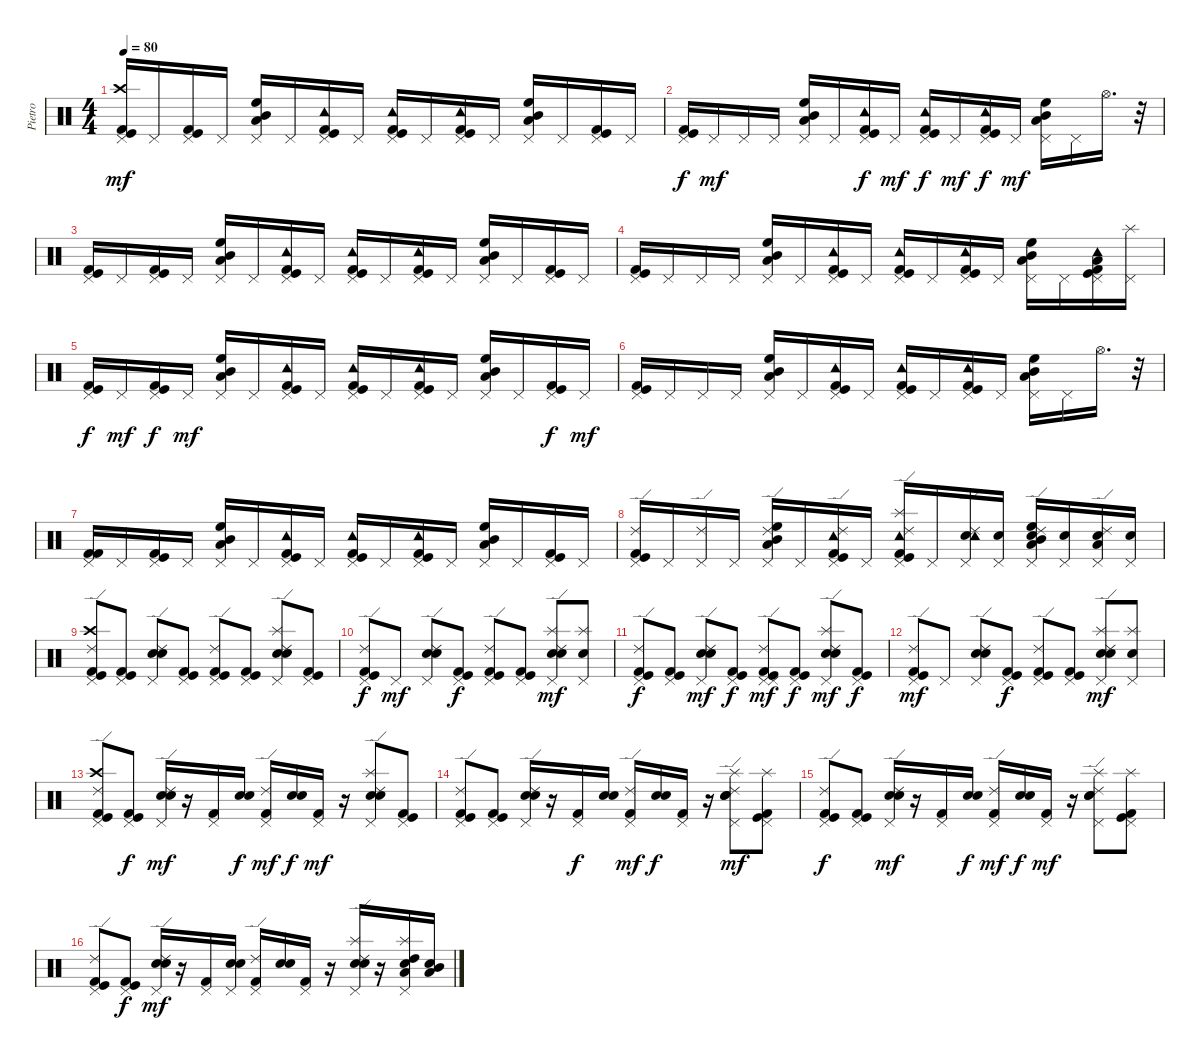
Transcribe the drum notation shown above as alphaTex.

\track ("Pietro" "Pietro") {instrument percussion}
\staff {score}
\articulation defaults
\ts (4 4)
\tempo 80
\clef neutral
\ks c
("Pedal Hi-Hat (hit)" "Crash high (hit)" "Kick (hit)" "Kick (hit) 2").16{dy mf} "Pedal Hi-Hat (hit)".16 ("Pedal Hi-Hat (hit)" "Kick (hit)" "Kick (hit) 2").16 "Pedal Hi-Hat (hit)".16 ("Pedal Hi-Hat (hit)" "High Floor Tom (hit)" "Mid Tom (hit)" "Low Tom (hit)").16 "Pedal Hi-Hat (hit)".16 ("Pedal Hi-Hat (hit)" "Tambourine (hit)" "Kick (hit)" "Kick (hit) 2").16 "Pedal Hi-Hat (hit)".16 ("Pedal Hi-Hat (hit)" "Tambourine (hit)" "Kick (hit)" "Kick (hit) 2").16 "Pedal Hi-Hat (hit)".16 ("Pedal Hi-Hat (hit)" "Tambourine (hit)" "Kick (hit)" "Kick (hit) 2").16 "Pedal Hi-Hat (hit)".16 ("Pedal Hi-Hat (hit)" "Mid Tom (hit)" "High Floor Tom (hit)" "Low Tom (hit)").16 "Pedal Hi-Hat (hit)".16 ("Pedal Hi-Hat (hit)" "Kick (hit)" "Kick (hit) 2").16 "Pedal Hi-Hat (hit)".16 |
("Pedal Hi-Hat (hit)" "Kick (hit)" "Kick (hit) 2").16{dy f} "Pedal Hi-Hat (hit)".16{dy mf} "Pedal Hi-Hat (hit)".16 "Pedal Hi-Hat (hit)".16 ("Pedal Hi-Hat (hit)" "High Floor Tom (hit)" "Mid Tom (hit)" "Low Tom (hit)").16 "Pedal Hi-Hat (hit)".16 ("Pedal Hi-Hat (hit)" "Tambourine (hit)" "Kick (hit)" "Kick (hit) 2").16{dy f} "Pedal Hi-Hat (hit)".16{dy mf} ("Pedal Hi-Hat (hit)" "Tambourine (hit)" "Kick (hit)" "Kick (hit) 2").16{dy f} "Pedal Hi-Hat (hit)".16{dy mf} ("Pedal Hi-Hat (hit)" "Tambourine (hit)" "Kick (hit)" "Kick (hit) 2").16{dy f} "Pedal Hi-Hat (hit)".16{dy mf} ("Pedal Hi-Hat (hit)" "High Floor Tom (hit)" "Mid Tom (hit)" "Low Tom (hit)").16 "Pedal Hi-Hat (hit)".16 "Hi-Hat (open)".16{d} r.32 |
("Pedal Hi-Hat (hit)" "Kick (hit)" "Kick (hit) 2").16 "Pedal Hi-Hat (hit)".16 ("Pedal Hi-Hat (hit)" "Kick (hit)" "Kick (hit) 2").16 "Pedal Hi-Hat (hit)".16 ("Pedal Hi-Hat (hit)" "High Floor Tom (hit)" "Mid Tom (hit)" "Low Tom (hit)").16 "Pedal Hi-Hat (hit)".16 ("Pedal Hi-Hat (hit)" "Tambourine (hit)" "Kick (hit)" "Kick (hit) 2").16 "Pedal Hi-Hat (hit)".16 ("Pedal Hi-Hat (hit)" "Tambourine (hit)" "Kick (hit)" "Kick (hit) 2").16 "Pedal Hi-Hat (hit)".16 ("Pedal Hi-Hat (hit)" "Tambourine (hit)" "Kick (hit)" "Kick (hit) 2").16 "Pedal Hi-Hat (hit)".16 ("Pedal Hi-Hat (hit)" "Mid Tom (hit)" "High Floor Tom (hit)" "Low Tom (hit)").16 "Pedal Hi-Hat (hit)".16 ("Pedal Hi-Hat (hit)" "Kick (hit)" "Kick (hit) 2").16 "Pedal Hi-Hat (hit)".16 |
("Pedal Hi-Hat (hit)" "Kick (hit)" "Kick (hit) 2").16 "Pedal Hi-Hat (hit)".16 "Pedal Hi-Hat (hit)".16 "Pedal Hi-Hat (hit)".16 ("Pedal Hi-Hat (hit)" "High Floor Tom (hit)" "Mid Tom (hit)" "Low Tom (hit)").16 "Pedal Hi-Hat (hit)".16 ("Pedal Hi-Hat (hit)" "Tambourine (hit)" "Kick (hit)" "Kick (hit) 2").16 "Pedal Hi-Hat (hit)".16 ("Pedal Hi-Hat (hit)" "Tambourine (hit)" "Kick (hit)" "Kick (hit) 2").16 "Pedal Hi-Hat (hit)".16 ("Pedal Hi-Hat (hit)" "Tambourine (hit)" "Kick (hit)" "Kick (hit) 2").16 "Pedal Hi-Hat (hit)".16 ("Pedal Hi-Hat (hit)" "High Floor Tom (hit)" "Mid Tom (hit)" "Low Tom (hit)").16 "Pedal Hi-Hat (hit)".16 ("Pedal Hi-Hat (hit)" "Tambourine (hit)" "Low Tom (hit)" "Kick (hit)" "Kick (hit) 2").16 ("Pedal Hi-Hat (hit)" "Splash (hit)").16 |
("Pedal Hi-Hat (hit)" "Kick (hit)" "Kick (hit) 2").16{dy f} "Pedal Hi-Hat (hit)".16{dy mf} ("Pedal Hi-Hat (hit)" "Kick (hit)" "Kick (hit) 2").16{dy f} "Pedal Hi-Hat (hit)".16{dy mf} ("Pedal Hi-Hat (hit)" "High Floor Tom (hit)" "Mid Tom (hit)" "Low Tom (hit)").16 "Pedal Hi-Hat (hit)".16 ("Pedal Hi-Hat (hit)" "Tambourine (hit)" "Kick (hit)" "Kick (hit) 2").16 "Pedal Hi-Hat (hit)".16 ("Pedal Hi-Hat (hit)" "Tambourine (hit)" "Kick (hit)" "Kick (hit) 2").16 "Pedal Hi-Hat (hit)".16 ("Pedal Hi-Hat (hit)" "Tambourine (hit)" "Kick (hit)" "Kick (hit) 2").16 "Pedal Hi-Hat (hit)".16 ("Pedal Hi-Hat (hit)" "High Floor Tom (hit)" "Mid Tom (hit)" "Low Tom (hit)").16 "Pedal Hi-Hat (hit)".16 ("Pedal Hi-Hat (hit)" "Kick (hit)" "Kick (hit) 2").16{dy f} "Pedal Hi-Hat (hit)".16{dy mf} |
("Pedal Hi-Hat (hit)" "Kick (hit)" "Kick (hit) 2").16 "Pedal Hi-Hat (hit)".16 "Pedal Hi-Hat (hit)".16 "Pedal Hi-Hat (hit)".16 ("Pedal Hi-Hat (hit)" "High Floor Tom (hit)" "Mid Tom (hit)" "Low Tom (hit)").16 "Pedal Hi-Hat (hit)".16 ("Pedal Hi-Hat (hit)" "Tambourine (hit)" "Kick (hit)" "Kick (hit) 2").16 "Pedal Hi-Hat (hit)".16 ("Pedal Hi-Hat (hit)" "Tambourine (hit)" "Kick (hit)" "Kick (hit) 2").16 "Pedal Hi-Hat (hit)".16 ("Pedal Hi-Hat (hit)" "Tambourine (hit)" "Kick (hit)" "Kick (hit) 2").16 "Pedal Hi-Hat (hit)".16 ("Pedal Hi-Hat (hit)" "High Floor Tom (hit)" "Mid Tom (hit)" "Low Tom (hit)").16 "Pedal Hi-Hat (hit)".16 "Hi-Hat (open)".16{d} r.32 |
("Pedal Hi-Hat (hit)" "Kick (hit) 2" "Kick (hit) 2").16 "Pedal Hi-Hat (hit)".16 ("Pedal Hi-Hat (hit)" "Kick (hit)" "Kick (hit) 2").16 "Pedal Hi-Hat (hit)".16 ("Pedal Hi-Hat (hit)" "High Floor Tom (hit)" "Mid Tom (hit)" "Low Tom (hit)").16 "Pedal Hi-Hat (hit)".16 ("Pedal Hi-Hat (hit)" "Tambourine (hit)" "Kick (hit)" "Kick (hit) 2").16 "Pedal Hi-Hat (hit)".16 ("Pedal Hi-Hat (hit)" "Tambourine (hit)" "Kick (hit)" "Kick (hit) 2").16 "Pedal Hi-Hat (hit)".16 ("Pedal Hi-Hat (hit)" "Tambourine (hit)" "Kick (hit)" "Kick (hit) 2").16 "Pedal Hi-Hat (hit)".16 ("Pedal Hi-Hat (hit)" "High Floor Tom (hit)" "Mid Tom (hit)" "Low Tom (hit)").16 "Pedal Hi-Hat (hit)".16 ("Pedal Hi-Hat (hit)" "Kick (hit)" "Kick (hit) 2").16 "Pedal Hi-Hat (hit)".16 |
("Pedal Hi-Hat (hit)" "Ride (edge) 2" "Kick (hit)" "Kick (hit) 2").16 "Pedal Hi-Hat (hit)".16 ("Pedal Hi-Hat (hit)" "Ride (edge) 2").16 "Pedal Hi-Hat (hit)".16 ("Pedal Hi-Hat (hit)" "Ride (edge) 2" "High Floor Tom (hit)" "Mid Tom (hit)" "Low Tom (hit)").16 "Pedal Hi-Hat (hit)".16 ("Pedal Hi-Hat (hit)" "Ride (edge) 2" "Tambourine (hit)" "Kick (hit)" "Kick (hit) 2").16 "Pedal Hi-Hat (hit)".16 ("Pedal Hi-Hat (hit)" "Splash (hit)" "Tambourine (hit)" "Ride (edge) 2" "Kick (hit)" "Kick (hit) 2").16 "Pedal Hi-Hat (hit)".16 ("Pedal Hi-Hat (hit)" "Ride (edge) 2" "Snare (hit) 2" "Tambourine (hit)").16 ("Pedal Hi-Hat (hit)" "Snare (hit) 2").16 ("Ride (edge) 2" "Snare (hit) 2" "Low Tom (hit)" "High Floor Tom (hit)" "Mid Tom (hit)" "Pedal Hi-Hat (hit)").16 ("Snare (hit) 2" "Pedal Hi-Hat (hit)").16 ("Ride (edge) 2" "Snare (hit) 2" "Low Tom (hit)" "Pedal Hi-Hat (hit)").16 ("Snare (hit) 2" "Pedal Hi-Hat (hit)").16 |
("Pedal Hi-Hat (hit)" "Ride (edge) 2" "Crash high (hit)" "Kick (hit)" "Kick (hit) 2").8 ("Pedal Hi-Hat (hit)" "Kick (hit)" "Kick (hit) 2").8 ("Pedal Hi-Hat (hit)" "Ride (edge) 2" "Snare (hit) 2" "Electric Snare (hit)").8 ("Pedal Hi-Hat (hit)" "Kick (hit)" "Kick (hit) 2").8 ("Pedal Hi-Hat (hit)" "Ride (edge) 2" "Kick (hit)" "Kick (hit) 2").8 ("Pedal Hi-Hat (hit)" "Kick (hit)" "Kick (hit) 2").8 ("Pedal Hi-Hat (hit)" "Ride (edge) 2" "Snare (hit) 2" "Electric Snare (hit)" "Splash (hit)").8 ("Pedal Hi-Hat (hit)" "Kick (hit)" "Kick (hit) 2").8 |
("Pedal Hi-Hat (hit)" "Ride (edge) 2" "Kick (hit)" "Kick (hit) 2").8{dy f} "Pedal Hi-Hat (hit)".8{dy mf} ("Pedal Hi-Hat (hit)" "Ride (edge) 2" "Snare (hit) 2" "Electric Snare (hit)").8 ("Pedal Hi-Hat (hit)" "Kick (hit)" "Kick (hit) 2").8{dy f} ("Pedal Hi-Hat (hit)" "Ride (edge) 2" "Kick (hit)" "Kick (hit) 2").8 ("Pedal Hi-Hat (hit)" "Kick (hit)" "Kick (hit) 2").8 ("Pedal Hi-Hat (hit)" "Ride (edge) 2" "Snare (hit) 2" "Electric Snare (hit)" "Splash (hit)").8{dy mf} ("Pedal Hi-Hat (hit)" "Snare (hit) 2" "Splash (hit)").8 |
("Pedal Hi-Hat (hit)" "Ride (edge) 2" "Kick (hit)" "Kick (hit) 2").8{dy f} ("Pedal Hi-Hat (hit)" "Kick (hit)" "Kick (hit) 2").8 ("Pedal Hi-Hat (hit)" "Ride (edge) 2" "Snare (hit) 2" "Electric Snare (hit)").8{dy mf} ("Pedal Hi-Hat (hit)" "Kick (hit)" "Kick (hit) 2").8{dy f} ("Pedal Hi-Hat (hit)" "Ride (edge) 2" "Pedal Hi-Hat (hit)" "Kick (hit)" "Kick (hit) 2").8{dy mf} ("Pedal Hi-Hat (hit)" "Kick (hit)" "Kick (hit) 2").8{dy f} ("Splash (hit)" "Electric Snare (hit)" "Snare (hit) 2" "Ride (edge) 2" "Pedal Hi-Hat (hit)").8{dy mf} ("Pedal Hi-Hat (hit)" "Kick (hit)" "Kick (hit) 2").8{dy f} |
("Pedal Hi-Hat (hit)" "Ride (edge) 2" "Kick (hit)" "Kick (hit) 2").8{dy mf} "Pedal Hi-Hat (hit)".8 ("Pedal Hi-Hat (hit)" "Ride (edge) 2" "Snare (hit) 2" "Electric Snare (hit)").8 ("Pedal Hi-Hat (hit)" "Kick (hit)" "Kick (hit) 2").8{dy f} ("Pedal Hi-Hat (hit)" "Ride (edge) 2" "Kick (hit)" "Kick (hit) 2").8 ("Pedal Hi-Hat (hit)" "Kick (hit)" "Kick (hit) 2").8 ("Pedal Hi-Hat (hit)" "Ride (edge) 2" "Snare (hit) 2" "Electric Snare (hit)" "Splash (hit)").8{dy mf} ("Pedal Hi-Hat (hit)" "Splash (hit)" "Snare (hit) 2").8 |
("Pedal Hi-Hat (hit)" "Ride (edge) 2" "Crash high (hit)" "Kick (hit)" "Kick (hit) 2").8 ("Pedal Hi-Hat (hit)" "Kick (hit)" "Kick (hit) 2").8{dy f} ("Pedal Hi-Hat (hit)" "Ride (edge) 2" "Snare (hit) 2" "Electric Snare (hit)").16{dy mf} r.16 ("Pedal Hi-Hat (hit)" "Kick (hit) 2").16 ("Snare (hit) 2" "Electric Snare (hit)").16{dy f} ("Pedal Hi-Hat (hit)" "Ride (edge) 2" "Kick (hit) 2").16{dy mf} ("Snare (hit) 2" "Electric Snare (hit)").16{dy f} ("Pedal Hi-Hat (hit)" "Kick (hit) 2").16{dy mf} r.16 ("Pedal Hi-Hat (hit)" "Ride (edge) 2" "Snare (hit) 2" "Electric Snare (hit)" "Splash (hit)").8 ("Pedal Hi-Hat (hit)" "Kick (hit)" "Kick (hit) 2").8 |
("Pedal Hi-Hat (hit)" "Ride (edge) 2" "Kick (hit)" "Kick (hit) 2").8 ("Pedal Hi-Hat (hit)" "Kick (hit)" "Kick (hit) 2").8 ("Pedal Hi-Hat (hit)" "Ride (edge) 2" "Snare (hit) 2" "Electric Snare (hit)").16 r.16 ("Pedal Hi-Hat (hit)" "Kick (hit) 2").16{dy f} ("Snare (hit) 2" "Electric Snare (hit)").16 ("Pedal Hi-Hat (hit)" "Ride (edge) 2" "Kick (hit) 2").16{dy mf} ("Snare (hit) 2" "Electric Snare (hit)").16{dy f} ("Pedal Hi-Hat (hit)" "Kick (hit) 2").16 r.16 ("Pedal Hi-Hat (hit)" "Ride (edge) 2" "Snare (hit) 2" "Electric Snare (hit)" "Splash (hit)").8{dy mf} ("Splash (hit)" "Pedal Hi-Hat (hit)" "Kick (hit)" "Kick (hit) 2").8 |
("Pedal Hi-Hat (hit)" "Ride (edge) 2" "Kick (hit)" "Kick (hit) 2").8{dy f} ("Pedal Hi-Hat (hit)" "Kick (hit)" "Kick (hit) 2").8 ("Pedal Hi-Hat (hit)" "Ride (edge) 2" "Snare (hit) 2" "Electric Snare (hit)").16{dy mf} r.16 ("Pedal Hi-Hat (hit)" "Kick (hit) 2").16 ("Snare (hit) 2" "Electric Snare (hit)").16{dy f} ("Pedal Hi-Hat (hit)" "Ride (edge) 2" "Kick (hit) 2").16{dy mf} ("Snare (hit) 2" "Electric Snare (hit)").16{dy f} ("Pedal Hi-Hat (hit)" "Kick (hit) 2").16{dy mf} r.16 ("Pedal Hi-Hat (hit)" "Ride (edge) 2" "Snare (hit) 2" "Splash (hit)" "Electric Snare (hit)").8 ("Pedal Hi-Hat (hit)" "Splash (hit)" "Kick (hit)" "Kick (hit) 2").8 |
("Pedal Hi-Hat (hit)" "Ride (edge) 2" "Kick (hit)" "Kick (hit) 2").8 ("Pedal Hi-Hat (hit)" "Kick (hit)" "Kick (hit) 2").8{dy f} ("Pedal Hi-Hat (hit)" "Ride (edge) 2" "Snare (hit) 2" "Electric Snare (hit)").16{dy mf} r.16 ("Pedal Hi-Hat (hit)" "Kick (hit) 2").16 ("Pedal Hi-Hat (hit)" "Electric Snare (hit)" "Snare (hit) 2").16 ("Pedal Hi-Hat (hit)" "Ride (edge) 2" "Kick (hit) 2").16 ("Electric Snare (hit)" "Snare (hit) 2").16 ("Pedal Hi-Hat (hit)" "Kick (hit) 2").16 r.16 ("Pedal Hi-Hat (hit)" "Ride (edge) 2" "Snare (hit) 2" "Electric Snare (hit)" "Splash (hit)").16 r.16 ("Pedal Hi-Hat (hit)" "High Tom (hit)" "Snare (hit) 2" "Low Tom (hit)" "Splash (hit)").16 ("Mid Tom (hit)" "Snare (hit) 2" "Low Tom (hit)").16
